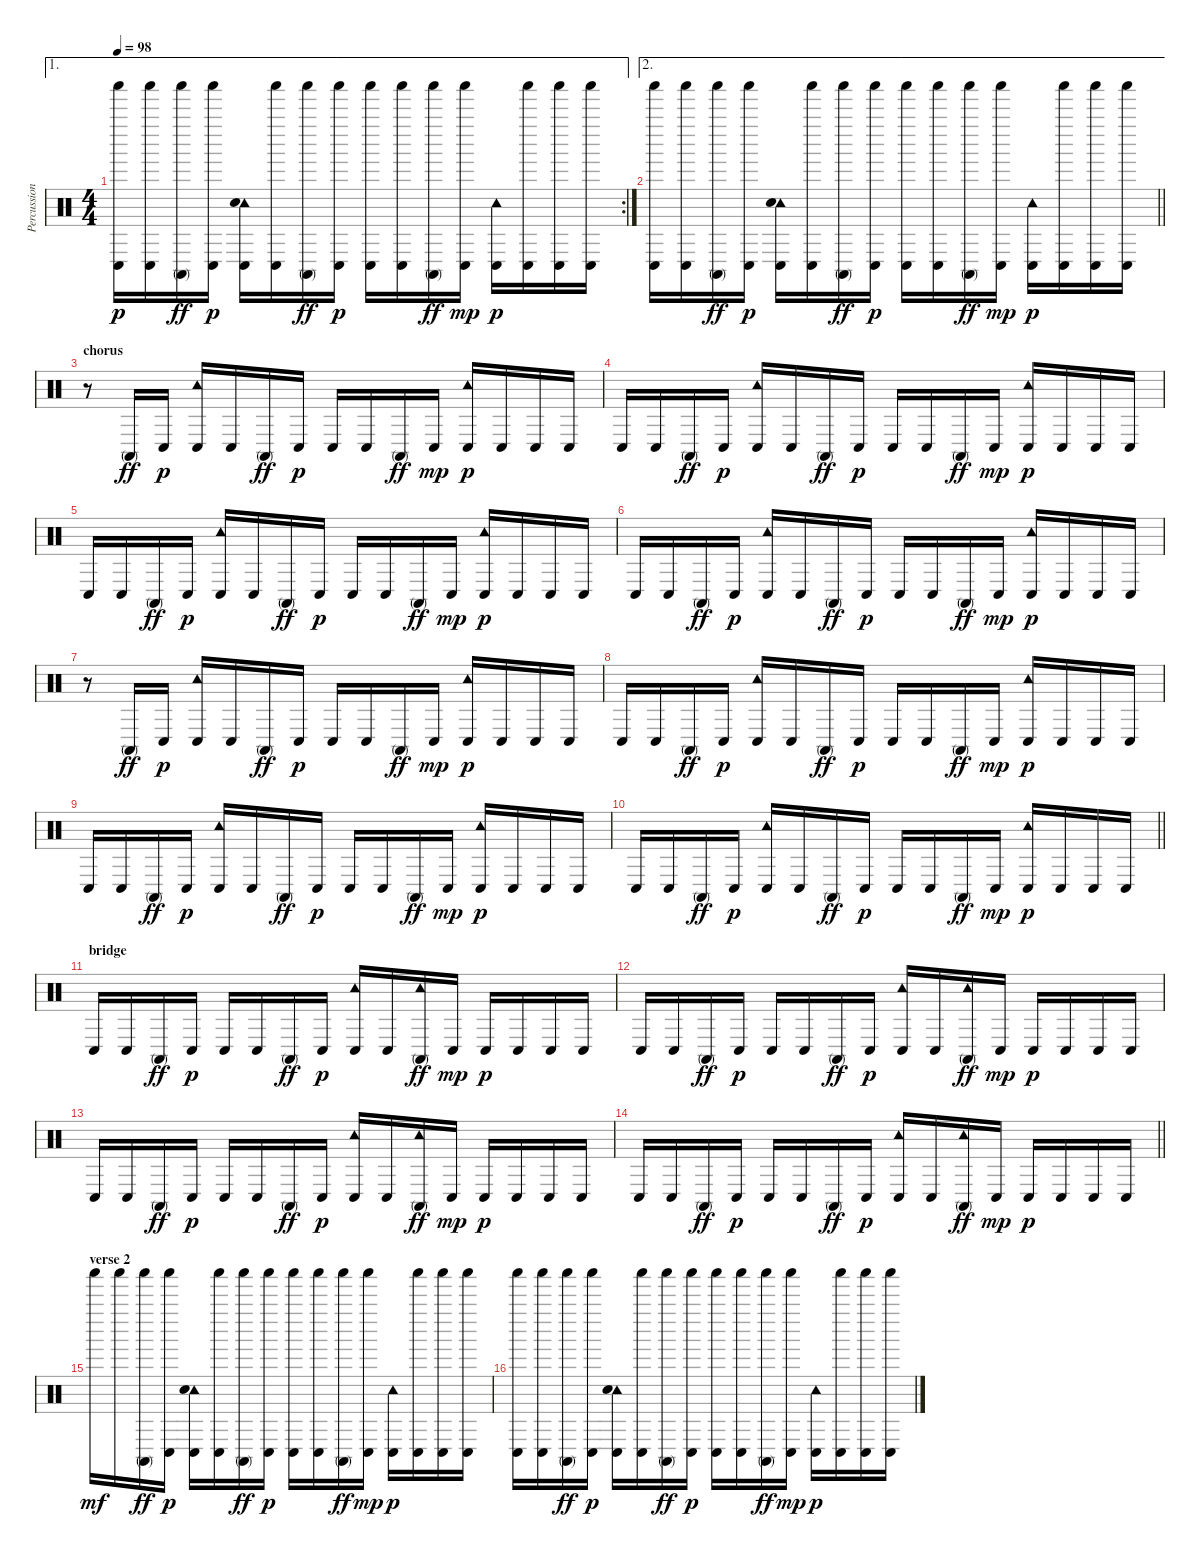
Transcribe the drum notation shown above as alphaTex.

\track ("Percussions" "Percussion") {instrument percussion}
\staff {score}
\articulation defaults
\ae 1
\rc 2
\ts (4 4)
\tempo 98
\clef neutral
\ks c
("Shaker (hit)" "Conga low (hit)").16{dy p} ("Shaker (hit)" "Conga low (hit)").16 ("Shaker (hit)" "Conga high (mute)").16{dy ff} ("Shaker (hit)" "Conga low (hit)").16{dy p} ("Tambourine (hit)" "Hand Clap (hit)" "Conga low (hit)").16 ("Shaker (hit)" "Conga low (hit)").16 ("Shaker (hit)" "Conga high (mute)").16{dy ff} ("Shaker (hit)" "Conga low (hit)").16{dy p} ("Shaker (hit)" "Conga low (hit)").16 ("Shaker (hit)" "Conga low (hit)").16 ("Shaker (hit)" "Conga high (mute)").16{dy ff} ("Shaker (hit)" "Conga low (hit)").16{dy mp} ("Tambourine (hit)" "Conga low (hit)").16{dy p} ("Shaker (hit)" "Conga low (hit)").16 ("Shaker (hit)" "Conga low (hit)").16 ("Shaker (hit)" "Conga low (hit)").16 |
\ae 2
\barLineRight lightlight
("Shaker (hit)" "Conga low (hit)").16 ("Shaker (hit)" "Conga low (hit)").16 ("Shaker (hit)" "Conga high (mute)").16{dy ff} ("Shaker (hit)" "Conga low (hit)").16{dy p} ("Tambourine (hit)" "Hand Clap (hit)" "Conga low (hit)").16 ("Shaker (hit)" "Conga low (hit)").16 ("Shaker (hit)" "Conga high (mute)").16{dy ff} ("Shaker (hit)" "Conga low (hit)").16{dy p} ("Shaker (hit)" "Conga low (hit)").16 ("Shaker (hit)" "Conga low (hit)").16 ("Shaker (hit)" "Conga high (mute)").16{dy ff} ("Shaker (hit)" "Conga low (hit)").16{dy mp} ("Tambourine (hit)" "Conga low (hit)").16{dy p} ("Shaker (hit)" "Conga low (hit)").16 ("Shaker (hit)" "Conga low (hit)").16 ("Shaker (hit)" "Conga low (hit)").16 |
\section ("" "chorus")
r.8 "Conga high (mute)".16{dy ff} "Conga low (hit)".16{dy p} ("Tambourine (hit)" "Conga low (hit)").16 "Conga low (hit)".16 "Conga high (mute)".16{dy ff} "Conga low (hit)".16{dy p} "Conga low (hit)".16 "Conga low (hit)".16 "Conga high (mute)".16{dy ff} "Conga low (hit)".16{dy mp} ("Tambourine (hit)" "Conga low (hit)").16{dy p} "Conga low (hit)".16 "Conga low (hit)".16 "Conga low (hit)".16 |
"Conga low (hit)".16 "Conga low (hit)".16 "Conga high (mute)".16{dy ff} "Conga low (hit)".16{dy p} ("Tambourine (hit)" "Conga low (hit)").16 "Conga low (hit)".16 "Conga high (mute)".16{dy ff} "Conga low (hit)".16{dy p} "Conga low (hit)".16 "Conga low (hit)".16 "Conga high (mute)".16{dy ff} "Conga low (hit)".16{dy mp} ("Tambourine (hit)" "Conga low (hit)").16{dy p} "Conga low (hit)".16 "Conga low (hit)".16 "Conga low (hit)".16 |
"Conga low (hit)".16 "Conga low (hit)".16 "Conga high (mute)".16{dy ff} "Conga low (hit)".16{dy p} ("Tambourine (hit)" "Conga low (hit)").16 "Conga low (hit)".16 "Conga high (mute)".16{dy ff} "Conga low (hit)".16{dy p} "Conga low (hit)".16 "Conga low (hit)".16 "Conga high (mute)".16{dy ff} "Conga low (hit)".16{dy mp} ("Tambourine (hit)" "Conga low (hit)").16{dy p} "Conga low (hit)".16 "Conga low (hit)".16 "Conga low (hit)".16 |
"Conga low (hit)".16 "Conga low (hit)".16 "Conga high (mute)".16{dy ff} "Conga low (hit)".16{dy p} ("Tambourine (hit)" "Conga low (hit)").16 "Conga low (hit)".16 "Conga high (mute)".16{dy ff} "Conga low (hit)".16{dy p} "Conga low (hit)".16 "Conga low (hit)".16 "Conga high (mute)".16{dy ff} "Conga low (hit)".16{dy mp} ("Tambourine (hit)" "Conga low (hit)").16{dy p} "Conga low (hit)".16 "Conga low (hit)".16 "Conga low (hit)".16 |
r.8 "Conga high (mute)".16{dy ff} "Conga low (hit)".16{dy p} ("Tambourine (hit)" "Conga low (hit)").16 "Conga low (hit)".16 "Conga high (mute)".16{dy ff} "Conga low (hit)".16{dy p} "Conga low (hit)".16 "Conga low (hit)".16 "Conga high (mute)".16{dy ff} "Conga low (hit)".16{dy mp} ("Tambourine (hit)" "Conga low (hit)").16{dy p} "Conga low (hit)".16 "Conga low (hit)".16 "Conga low (hit)".16 |
"Conga low (hit)".16 "Conga low (hit)".16 "Conga high (mute)".16{dy ff} "Conga low (hit)".16{dy p} ("Tambourine (hit)" "Conga low (hit)").16 "Conga low (hit)".16 "Conga high (mute)".16{dy ff} "Conga low (hit)".16{dy p} "Conga low (hit)".16 "Conga low (hit)".16 "Conga high (mute)".16{dy ff} "Conga low (hit)".16{dy mp} ("Tambourine (hit)" "Conga low (hit)").16{dy p} "Conga low (hit)".16 "Conga low (hit)".16 "Conga low (hit)".16 |
"Conga low (hit)".16 "Conga low (hit)".16 "Conga high (mute)".16{dy ff} "Conga low (hit)".16{dy p} ("Tambourine (hit)" "Conga low (hit)").16 "Conga low (hit)".16 "Conga high (mute)".16{dy ff} "Conga low (hit)".16{dy p} "Conga low (hit)".16 "Conga low (hit)".16 "Conga high (mute)".16{dy ff} "Conga low (hit)".16{dy mp} ("Tambourine (hit)" "Conga low (hit)").16{dy p} "Conga low (hit)".16 "Conga low (hit)".16 "Conga low (hit)".16 |
\barLineRight lightlight "Conga low (hit)".16 "Conga low (hit)".16 "Conga high (mute)".16{dy ff} "Conga low (hit)".16{dy p}
("Tambourine (hit)" "Conga low (hit)").16 "Conga low (hit)".16 "Conga high (mute)".16{dy ff} "Conga low (hit)".16{dy p} "Conga low (hit)".16 "Conga low (hit)".16 "Conga high (mute)".16{dy ff} "Conga low (hit)".16{dy mp} ("Tambourine (hit)" "Conga low (hit)").16{dy p} "Conga low (hit)".16 "Conga low (hit)".16 "Conga low (hit)".16 |
\section ("" "bridge")
"Conga low (hit)".16 "Conga low (hit)".16 "Conga high (mute)".16{dy ff} "Conga low (hit)".16{dy p} "Conga low (hit)".16 "Conga low (hit)".16 "Conga high (mute)".16{dy ff} "Conga low (hit)".16{dy p} ("Tambourine (hit)" "Conga low (hit)").16 "Conga low (hit)".16 ("Tambourine (hit)" "Conga high (mute)").16{dy ff} "Conga low (hit)".16{dy mp} "Conga low (hit)".16{dy p} "Conga low (hit)".16 "Conga low (hit)".16 "Conga low (hit)".16 |
"Conga low (hit)".16 "Conga low (hit)".16 "Conga high (mute)".16{dy ff} "Conga low (hit)".16{dy p} "Conga low (hit)".16 "Conga low (hit)".16 "Conga high (mute)".16{dy ff} "Conga low (hit)".16{dy p} ("Tambourine (hit)" "Conga low (hit)").16 "Conga low (hit)".16 ("Tambourine (hit)" "Conga high (mute)").16{dy ff} "Conga low (hit)".16{dy mp} "Conga low (hit)".16{dy p} "Conga low (hit)".16 "Conga low (hit)".16 "Conga low (hit)".16 |
"Conga low (hit)".16 "Conga low (hit)".16 "Conga high (mute)".16{dy ff} "Conga low (hit)".16{dy p} "Conga low (hit)".16 "Conga low (hit)".16 "Conga high (mute)".16{dy ff} "Conga low (hit)".16{dy p} ("Tambourine (hit)" "Conga low (hit)").16 "Conga low (hit)".16 ("Tambourine (hit)" "Conga high (mute)").16{dy ff} "Conga low (hit)".16{dy mp} "Conga low (hit)".16{dy p} "Conga low (hit)".16 "Conga low (hit)".16 "Conga low (hit)".16 |
\barLineRight lightlight "Conga low (hit)".16 "Conga low (hit)".16 "Conga high (mute)".16{dy ff} "Conga low (hit)".16{dy p} "Conga low (hit)".16 "Conga low (hit)".16 "Conga high (mute)".16{dy ff} "Conga low (hit)".16{dy p}
("Tambourine (hit)" "Conga low (hit)").16 "Conga low (hit)".16 ("Tambourine (hit)" "Conga high (mute)").16{dy ff} "Conga low (hit)".16{dy mp} "Conga low (hit)".16{dy p} "Conga low (hit)".16 "Conga low (hit)".16 "Conga low (hit)".16 |
\section ("" "verse 2")
"Shaker (hit)".16{dy mf} "Shaker (hit)".16 ("Shaker (hit)" "Conga high (mute)").16{dy ff} ("Shaker (hit)" "Conga low (hit)").16{dy p} ("Tambourine (hit)" "Hand Clap (hit)" "Conga low (hit)").16 ("Shaker (hit)" "Conga low (hit)").16 ("Shaker (hit)" "Conga high (mute)").16{dy ff} ("Shaker (hit)" "Conga low (hit)").16{dy p} ("Shaker (hit)" "Conga low (hit)").16 ("Shaker (hit)" "Conga low (hit)").16 ("Shaker (hit)" "Conga high (mute)").16{dy ff} ("Shaker (hit)" "Conga low (hit)").16{dy mp} ("Tambourine (hit)" "Conga low (hit)").16{dy p} ("Shaker (hit)" "Conga low (hit)").16 ("Shaker (hit)" "Conga low (hit)").16 ("Shaker (hit)" "Conga low (hit)").16 |
("Shaker (hit)" "Conga low (hit)").16 ("Shaker (hit)" "Conga low (hit)").16 ("Shaker (hit)" "Conga high (mute)").16{dy ff} ("Shaker (hit)" "Conga low (hit)").16{dy p} ("Tambourine (hit)" "Hand Clap (hit)" "Conga low (hit)").16 ("Shaker (hit)" "Conga low (hit)").16 ("Shaker (hit)" "Conga high (mute)").16{dy ff} ("Shaker (hit)" "Conga low (hit)").16{dy p} ("Shaker (hit)" "Conga low (hit)").16 ("Shaker (hit)" "Conga low (hit)").16 ("Shaker (hit)" "Conga high (mute)").16{dy ff} ("Shaker (hit)" "Conga low (hit)").16{dy mp} ("Tambourine (hit)" "Conga low (hit)").16{dy p} ("Shaker (hit)" "Conga low (hit)").16 ("Shaker (hit)" "Conga low (hit)").16 ("Shaker (hit)" "Conga low (hit)").16
